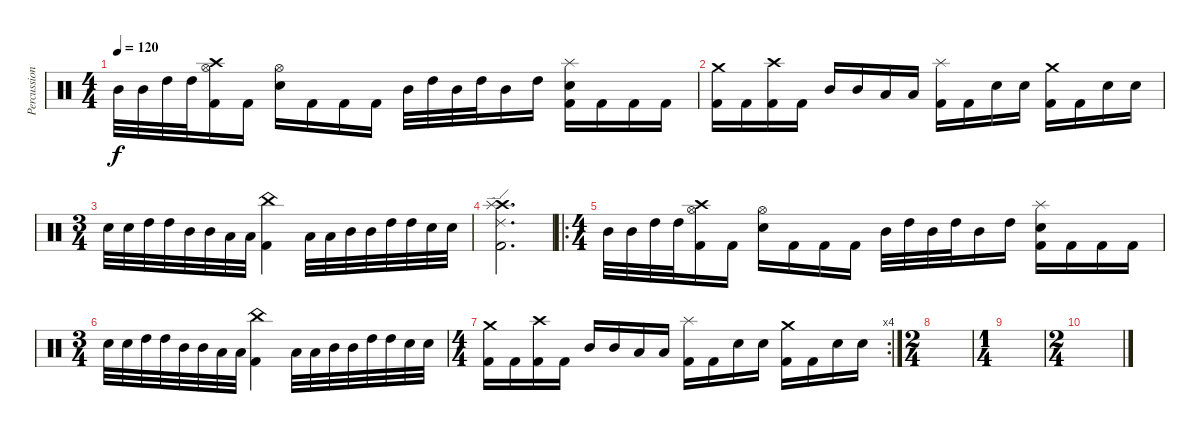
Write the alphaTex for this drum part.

\track ("Percussion" "Percussion") {instrument percussion}
\staff {score}
\articulation defaults
\ts (4 4)
\tempo 120
\clef neutral
\ks c "Mid Tom (hit)".32{dy f} "Mid Tom (hit)".32 "High Tom (hit)".32 "High Tom (hit)".32
("Hi-Hat (open)" "Crash high (hit)" "Kick (hit) 2").16 "Kick (hit) 2".16 ("Hi-Hat (open)" "Snare (hit) 2").16 "Kick (hit) 2".16 "Kick (hit) 2".16 "Kick (hit) 2".16 "Mid Tom (hit)".32 "High Tom (hit)".32 "Mid Tom (hit)".32 "High Tom (hit)".32 "Mid Tom (hit)".16 "High Tom (hit)".16 ("Splash (hit)" "Snare (hit) 2" "Kick (hit) 2").16 "Kick (hit) 2".16 "Kick (hit) 2".16 "Kick (hit) 2".16 |
("Crash medium (hit)" "Kick (hit) 2").16 "Kick (hit) 2".16 ("Crash high (hit)" "Kick (hit) 2").16 "Kick (hit) 2".16 "Mid Tom (hit)".16 "Mid Tom (hit)".16 "Low Tom (hit)".16 "Low Tom (hit)".16 ("Splash (hit)" "Kick (hit) 2").16 "Kick (hit) 2".16 "Snare (hit) 2".16 "Snare (hit) 2".16 ("Crash medium (hit)" "Kick (hit) 2").16 "Kick (hit) 2".16 "Snare (hit) 2".16 "Snare (hit) 2".16 |
\ts (3 4)
"Snare (hit) 2".32 "Snare (hit) 2".32 "High Tom (hit)".32 "High Tom (hit)".32 "Mid Tom (hit)".32 "Mid Tom (hit)".32 "Low Tom (hit)".32 "Low Tom (hit)".32 ("China (hit)" "Kick (hit) 2").4 "Low Tom (hit)".32 "Low Tom (hit)".32 "Mid Tom (hit)".32 "Mid Tom (hit)".32 "High Tom (hit)".32 "High Tom (hit)".32 "Snare (hit) 2".32 "Snare (hit) 2".32 |
("Ride (edge) 2" "Crash high (hit)" "Splash (hit)" "Kick (hit) 2").2{d} |
\ro
\ts (4 4)
"Mid Tom (hit)".32 "Mid Tom (hit)".32 "High Tom (hit)".32 "High Tom (hit)".32 ("Hi-Hat (open)" "Crash high (hit)" "Kick (hit) 2").16 "Kick (hit) 2".16 ("Hi-Hat (open)" "Snare (hit) 2").16 "Kick (hit) 2".16 "Kick (hit) 2".16 "Kick (hit) 2".16 "Mid Tom (hit)".32 "High Tom (hit)".32 "Mid Tom (hit)".32 "High Tom (hit)".32 "Mid Tom (hit)".16 "High Tom (hit)".16 ("Splash (hit)" "Snare (hit) 2" "Kick (hit) 2").16 "Kick (hit) 2".16 "Kick (hit) 2".16 "Kick (hit) 2".16 |
\ts (3 4)
"Snare (hit) 2".32 "Snare (hit) 2".32 "High Tom (hit)".32 "High Tom (hit)".32 "Mid Tom (hit)".32 "Mid Tom (hit)".32 "Low Tom (hit)".32 "Low Tom (hit)".32 ("China (hit)" "Kick (hit) 2").4 "Low Tom (hit)".32 "Low Tom (hit)".32 "Mid Tom (hit)".32 "Mid Tom (hit)".32 "High Tom (hit)".32 "High Tom (hit)".32 "Snare (hit) 2".32 "Snare (hit) 2".32 |
\rc 4
\ts (4 4)
("Crash medium (hit)" "Kick (hit) 2").16 "Kick (hit) 2".16 ("Crash high (hit)" "Kick (hit) 2").16 "Kick (hit) 2".16 "Mid Tom (hit)".16 "Mid Tom (hit)".16 "Low Tom (hit)".16 "Low Tom (hit)".16 ("Splash (hit)" "Kick (hit) 2").16 "Kick (hit) 2".16 "Snare (hit) 2".16 "Snare (hit) 2".16 ("Crash medium (hit)" "Kick (hit) 2").16 "Kick (hit) 2".16 "Snare (hit) 2".16 "Snare (hit) 2".16 |
\ts (2 4)
|
\ts (1 4)
|
\ts (2 4)
